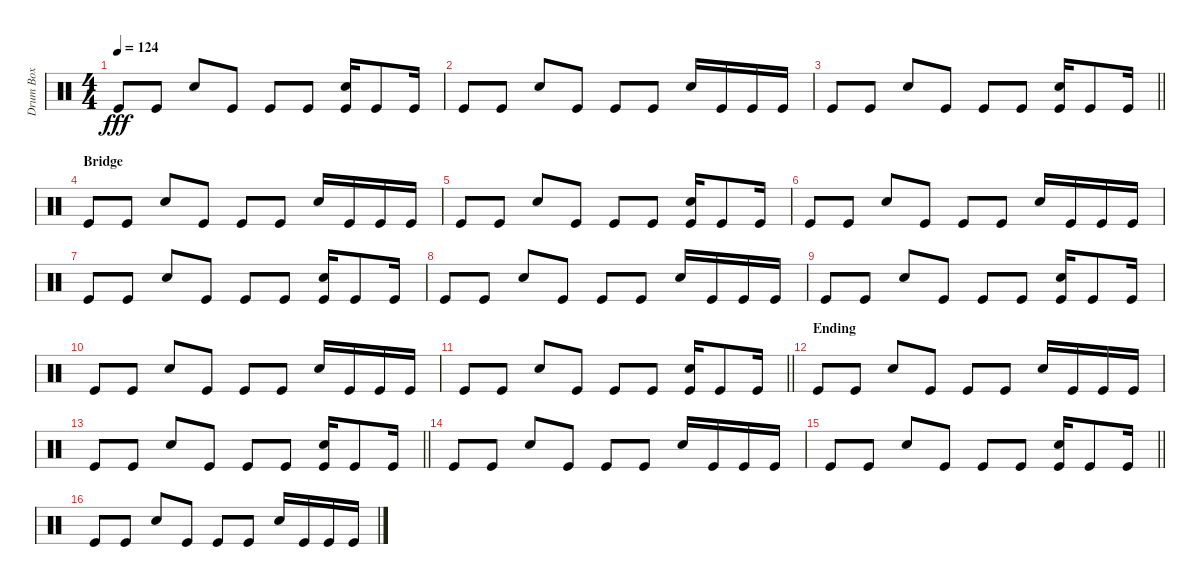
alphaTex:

\track ("Drum Box" "Drum Box") {instrument percussion}
\staff {score}
\articulation defaults
\ts (4 4)
\tempo 124
\clef neutral
\ks c "Kick (hit)".8{dy fff} "Kick (hit)".8 "Snare (hit) 2".8 "Kick (hit)".8 "Kick (hit)".8 "Kick (hit)".8
("Snare (hit) 2" "Kick (hit)").16 "Kick (hit)".8 "Kick (hit)".16 |
"Kick (hit)".8 "Kick (hit)".8 "Snare (hit) 2".8 "Kick (hit)".8 "Kick (hit)".8 "Kick (hit)".8 "Snare (hit) 2".16 "Kick (hit)".16 "Kick (hit)".16 "Kick (hit)".16 |
\barLineRight lightlight "Kick (hit)".8 "Kick (hit)".8 "Snare (hit) 2".8 "Kick (hit)".8 "Kick (hit)".8 "Kick (hit)".8
("Snare (hit) 2" "Kick (hit)").16 "Kick (hit)".8 "Kick (hit)".16 |
\section ("" "Bridge")
"Kick (hit)".8 "Kick (hit)".8 "Snare (hit) 2".8 "Kick (hit)".8 "Kick (hit)".8 "Kick (hit)".8 "Snare (hit) 2".16 "Kick (hit)".16 "Kick (hit)".16 "Kick (hit)".16 |
"Kick (hit)".8 "Kick (hit)".8 "Snare (hit) 2".8 "Kick (hit)".8 "Kick (hit)".8 "Kick (hit)".8 ("Snare (hit) 2" "Kick (hit)").16 "Kick (hit)".8 "Kick (hit)".16 |
"Kick (hit)".8 "Kick (hit)".8 "Snare (hit) 2".8 "Kick (hit)".8 "Kick (hit)".8 "Kick (hit)".8 "Snare (hit) 2".16 "Kick (hit)".16 "Kick (hit)".16 "Kick (hit)".16 |
"Kick (hit)".8 "Kick (hit)".8 "Snare (hit) 2".8 "Kick (hit)".8 "Kick (hit)".8 "Kick (hit)".8 ("Snare (hit) 2" "Kick (hit)").16 "Kick (hit)".8 "Kick (hit)".16 |
"Kick (hit)".8 "Kick (hit)".8 "Snare (hit) 2".8 "Kick (hit)".8 "Kick (hit)".8 "Kick (hit)".8 "Snare (hit) 2".16 "Kick (hit)".16 "Kick (hit)".16 "Kick (hit)".16 |
"Kick (hit)".8 "Kick (hit)".8 "Snare (hit) 2".8 "Kick (hit)".8 "Kick (hit)".8 "Kick (hit)".8 ("Snare (hit) 2" "Kick (hit)").16 "Kick (hit)".8 "Kick (hit)".16 |
"Kick (hit)".8 "Kick (hit)".8 "Snare (hit) 2".8 "Kick (hit)".8 "Kick (hit)".8 "Kick (hit)".8 "Snare (hit) 2".16 "Kick (hit)".16 "Kick (hit)".16 "Kick (hit)".16 |
\barLineRight lightlight "Kick (hit)".8 "Kick (hit)".8 "Snare (hit) 2".8 "Kick (hit)".8 "Kick (hit)".8 "Kick (hit)".8
("Snare (hit) 2" "Kick (hit)").16 "Kick (hit)".8 "Kick (hit)".16 |
\section ("" "Ending")
"Kick (hit)".8 "Kick (hit)".8 "Snare (hit) 2".8 "Kick (hit)".8 "Kick (hit)".8 "Kick (hit)".8 "Snare (hit) 2".16 "Kick (hit)".16 "Kick (hit)".16 "Kick (hit)".16 |
\barLineRight lightlight "Kick (hit)".8 "Kick (hit)".8 "Snare (hit) 2".8 "Kick (hit)".8 "Kick (hit)".8 "Kick (hit)".8
("Snare (hit) 2" "Kick (hit)").16 "Kick (hit)".8 "Kick (hit)".16 |
"Kick (hit)".8 "Kick (hit)".8 "Snare (hit) 2".8 "Kick (hit)".8 "Kick (hit)".8 "Kick (hit)".8 "Snare (hit) 2".16 "Kick (hit)".16 "Kick (hit)".16 "Kick (hit)".16 |
\barLineRight lightlight "Kick (hit)".8 "Kick (hit)".8 "Snare (hit) 2".8 "Kick (hit)".8 "Kick (hit)".8 "Kick (hit)".8
("Snare (hit) 2" "Kick (hit)").16 "Kick (hit)".8 "Kick (hit)".16 |
"Kick (hit)".8 "Kick (hit)".8 "Snare (hit) 2".8 "Kick (hit)".8 "Kick (hit)".8 "Kick (hit)".8 "Snare (hit) 2".16 "Kick (hit)".16 "Kick (hit)".16 "Kick (hit)".16
